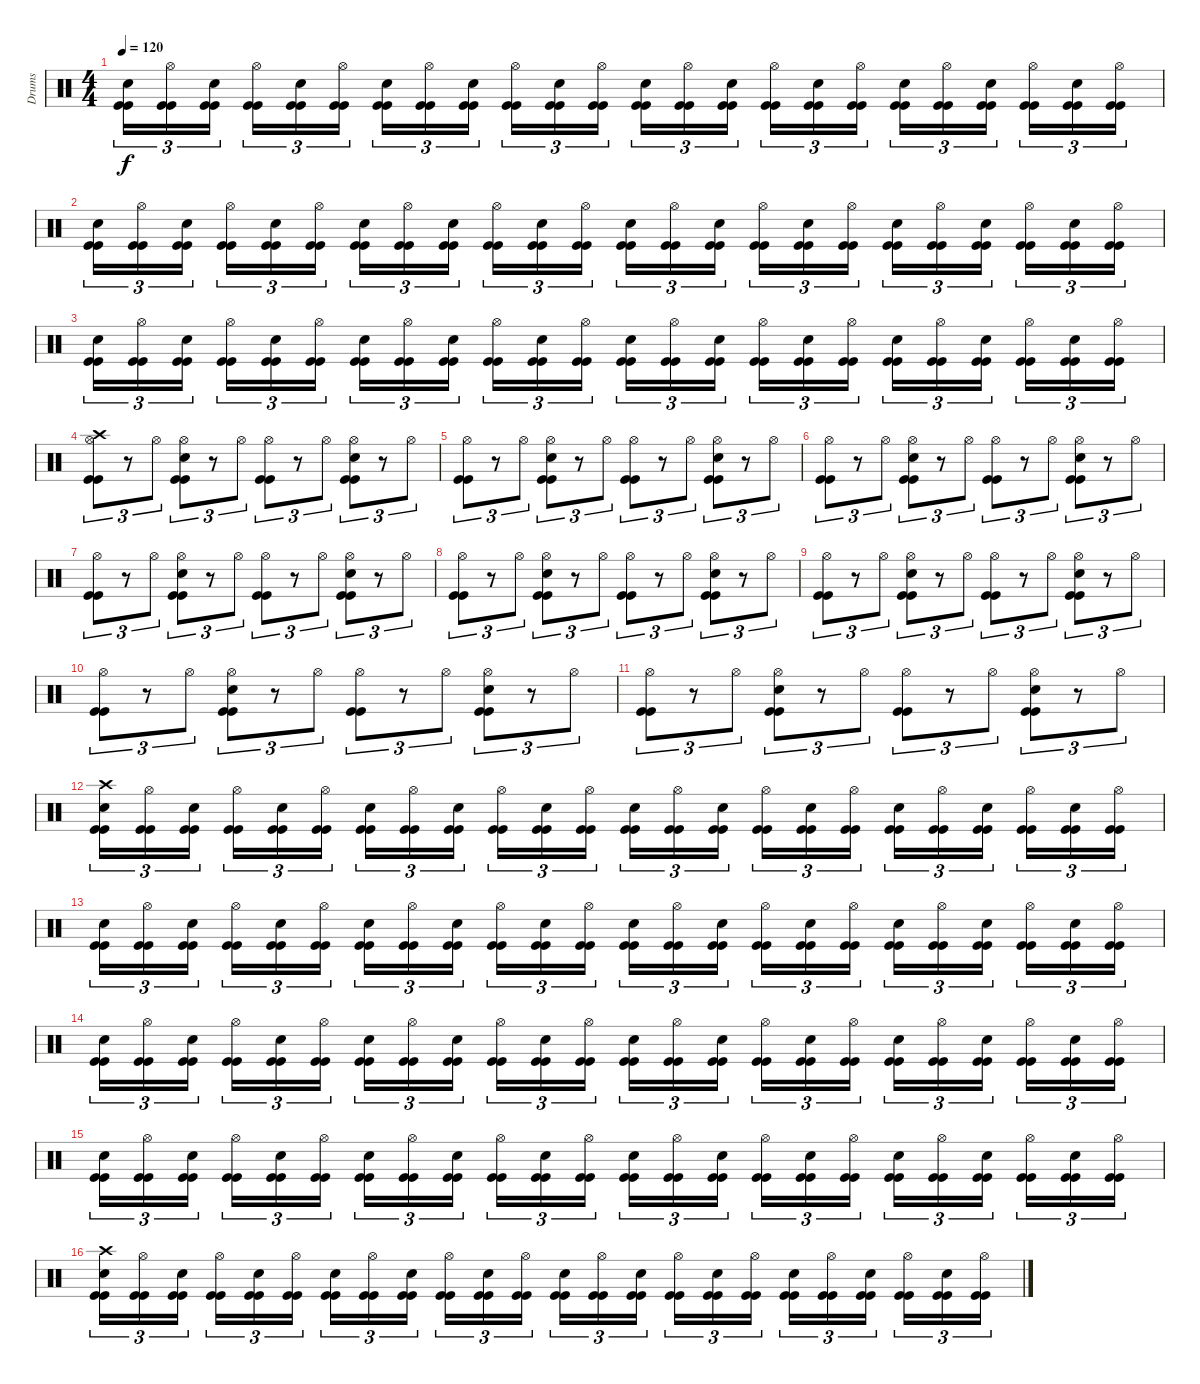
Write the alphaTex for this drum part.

\track ("Drums" "Drums") {instrument percussion}
\staff {score}
\articulation defaults
\ts (4 4)
\tempo 120
\clef neutral
\ks c
("Snare (hit) 2" "Kick (hit)" "Kick (hit)").16{tu (3 2) dy f} ("Hi-Hat (open)" "Kick (hit)" "Kick (hit)").16{tu (3 2)} ("Snare (hit) 2" "Kick (hit)" "Kick (hit)").16{tu (3 2)} ("Hi-Hat (open)" "Kick (hit)" "Kick (hit)").16{tu (3 2)} ("Snare (hit) 2" "Kick (hit)" "Kick (hit)").16{tu (3 2)} ("Hi-Hat (open)" "Kick (hit)" "Kick (hit)").16{tu (3 2)} ("Snare (hit) 2" "Kick (hit)" "Kick (hit)").16{tu (3 2)} ("Hi-Hat (open)" "Kick (hit)" "Kick (hit)").16{tu (3 2)} ("Snare (hit) 2" "Kick (hit)" "Kick (hit)").16{tu (3 2)} ("Hi-Hat (open)" "Kick (hit)" "Kick (hit)").16{tu (3 2)} ("Snare (hit) 2" "Kick (hit)" "Kick (hit)").16{tu (3 2)} ("Hi-Hat (open)" "Kick (hit)" "Kick (hit)").16{tu (3 2)} ("Snare (hit) 2" "Kick (hit)" "Kick (hit)").16{tu (3 2)} ("Hi-Hat (open)" "Kick (hit)" "Kick (hit)").16{tu (3 2)} ("Snare (hit) 2" "Kick (hit)" "Kick (hit)").16{tu (3 2)} ("Hi-Hat (open)" "Kick (hit)" "Kick (hit)").16{tu (3 2)} ("Snare (hit) 2" "Kick (hit)" "Kick (hit)").16{tu (3 2)} ("Hi-Hat (open)" "Kick (hit)" "Kick (hit)").16{tu (3 2)} ("Snare (hit) 2" "Kick (hit)" "Kick (hit)").16{tu (3 2)} ("Hi-Hat (open)" "Kick (hit)" "Kick (hit)").16{tu (3 2)} ("Snare (hit) 2" "Kick (hit)" "Kick (hit)").16{tu (3 2)} ("Hi-Hat (open)" "Kick (hit)" "Kick (hit)").16{tu (3 2)} ("Snare (hit) 2" "Kick (hit)" "Kick (hit)").16{tu (3 2)} ("Hi-Hat (open)" "Kick (hit)" "Kick (hit)").16{tu (3 2)} |
("Snare (hit) 2" "Kick (hit)" "Kick (hit)").16{tu (3 2)} ("Hi-Hat (open)" "Kick (hit)" "Kick (hit)").16{tu (3 2)} ("Snare (hit) 2" "Kick (hit)" "Kick (hit)").16{tu (3 2)} ("Hi-Hat (open)" "Kick (hit)" "Kick (hit)").16{tu (3 2)} ("Snare (hit) 2" "Kick (hit)" "Kick (hit)").16{tu (3 2)} ("Hi-Hat (open)" "Kick (hit)" "Kick (hit)").16{tu (3 2)} ("Snare (hit) 2" "Kick (hit)" "Kick (hit)").16{tu (3 2)} ("Hi-Hat (open)" "Kick (hit)" "Kick (hit)").16{tu (3 2)} ("Snare (hit) 2" "Kick (hit)" "Kick (hit)").16{tu (3 2)} ("Hi-Hat (open)" "Kick (hit)" "Kick (hit)").16{tu (3 2)} ("Snare (hit) 2" "Kick (hit)" "Kick (hit)").16{tu (3 2)} ("Hi-Hat (open)" "Kick (hit)" "Kick (hit)").16{tu (3 2)} ("Snare (hit) 2" "Kick (hit)" "Kick (hit)").16{tu (3 2)} ("Hi-Hat (open)" "Kick (hit)" "Kick (hit)").16{tu (3 2)} ("Snare (hit) 2" "Kick (hit)" "Kick (hit)").16{tu (3 2)} ("Hi-Hat (open)" "Kick (hit)" "Kick (hit)").16{tu (3 2)} ("Snare (hit) 2" "Kick (hit)" "Kick (hit)").16{tu (3 2)} ("Hi-Hat (open)" "Kick (hit)" "Kick (hit)").16{tu (3 2)} ("Snare (hit) 2" "Kick (hit)" "Kick (hit)").16{tu (3 2)} ("Hi-Hat (open)" "Kick (hit)" "Kick (hit)").16{tu (3 2)} ("Snare (hit) 2" "Kick (hit)" "Kick (hit)").16{tu (3 2)} ("Hi-Hat (open)" "Kick (hit)" "Kick (hit)").16{tu (3 2)} ("Snare (hit) 2" "Kick (hit)" "Kick (hit)").16{tu (3 2)} ("Hi-Hat (open)" "Kick (hit)" "Kick (hit)").16{tu (3 2)} |
("Snare (hit) 2" "Kick (hit)" "Kick (hit)").16{tu (3 2)} ("Hi-Hat (open)" "Kick (hit)" "Kick (hit)").16{tu (3 2)} ("Snare (hit) 2" "Kick (hit)" "Kick (hit)").16{tu (3 2)} ("Hi-Hat (open)" "Kick (hit)" "Kick (hit)").16{tu (3 2)} ("Snare (hit) 2" "Kick (hit)" "Kick (hit)").16{tu (3 2)} ("Hi-Hat (open)" "Kick (hit)" "Kick (hit)").16{tu (3 2)} ("Snare (hit) 2" "Kick (hit)" "Kick (hit)").16{tu (3 2)} ("Hi-Hat (open)" "Kick (hit)" "Kick (hit)").16{tu (3 2)} ("Snare (hit) 2" "Kick (hit)" "Kick (hit)").16{tu (3 2)} ("Hi-Hat (open)" "Kick (hit)" "Kick (hit)").16{tu (3 2)} ("Snare (hit) 2" "Kick (hit)" "Kick (hit)").16{tu (3 2)} ("Hi-Hat (open)" "Kick (hit)" "Kick (hit)").16{tu (3 2)} ("Snare (hit) 2" "Kick (hit)" "Kick (hit)").16{tu (3 2)} ("Hi-Hat (open)" "Kick (hit)" "Kick (hit)").16{tu (3 2)} ("Snare (hit) 2" "Kick (hit)" "Kick (hit)").16{tu (3 2)} ("Hi-Hat (open)" "Kick (hit)" "Kick (hit)").16{tu (3 2)} ("Snare (hit) 2" "Kick (hit)" "Kick (hit)").16{tu (3 2)} ("Hi-Hat (open)" "Kick (hit)" "Kick (hit)").16{tu (3 2)} ("Snare (hit) 2" "Kick (hit)" "Kick (hit)").16{tu (3 2)} ("Hi-Hat (open)" "Kick (hit)" "Kick (hit)").16{tu (3 2)} ("Snare (hit) 2" "Kick (hit)" "Kick (hit)").16{tu (3 2)} ("Hi-Hat (open)" "Kick (hit)" "Kick (hit)").16{tu (3 2)} ("Snare (hit) 2" "Kick (hit)" "Kick (hit)").16{tu (3 2)} ("Hi-Hat (open)" "Kick (hit)" "Kick (hit)").16{tu (3 2)} |
("Crash high (hit)" "Hi-Hat (open)" "Kick (hit)" "Kick (hit)").8{tu (3 2)} r.8{tu (3 2)} "Hi-Hat (open)".8{tu (3 2)} ("Snare (hit) 2" "Hi-Hat (open)" "Kick (hit)" "Kick (hit)").8{tu (3 2)} r.8{tu (3 2)} "Hi-Hat (open)".8{tu (3 2)} ("Hi-Hat (open)" "Kick (hit)" "Kick (hit)").8{tu (3 2)} r.8{tu (3 2)} "Hi-Hat (open)".8{tu (3 2)} ("Snare (hit) 2" "Hi-Hat (open)" "Kick (hit)" "Kick (hit)").8{tu (3 2)} r.8{tu (3 2)} "Hi-Hat (open)".8{tu (3 2)} |
("Hi-Hat (open)" "Kick (hit)" "Kick (hit)").8{tu (3 2)} r.8{tu (3 2)} "Hi-Hat (open)".8{tu (3 2)} ("Snare (hit) 2" "Hi-Hat (open)" "Kick (hit)" "Kick (hit)").8{tu (3 2)} r.8{tu (3 2)} "Hi-Hat (open)".8{tu (3 2)} ("Hi-Hat (open)" "Kick (hit)" "Kick (hit)").8{tu (3 2)} r.8{tu (3 2)} "Hi-Hat (open)".8{tu (3 2)} ("Snare (hit) 2" "Hi-Hat (open)" "Kick (hit)" "Kick (hit)").8{tu (3 2)} r.8{tu (3 2)} "Hi-Hat (open)".8{tu (3 2)} |
("Hi-Hat (open)" "Kick (hit)" "Kick (hit)").8{tu (3 2)} r.8{tu (3 2)} "Hi-Hat (open)".8{tu (3 2)} ("Snare (hit) 2" "Hi-Hat (open)" "Kick (hit)" "Kick (hit)").8{tu (3 2)} r.8{tu (3 2)} "Hi-Hat (open)".8{tu (3 2)} ("Hi-Hat (open)" "Kick (hit)" "Kick (hit)").8{tu (3 2)} r.8{tu (3 2)} "Hi-Hat (open)".8{tu (3 2)} ("Snare (hit) 2" "Hi-Hat (open)" "Kick (hit)" "Kick (hit)").8{tu (3 2)} r.8{tu (3 2)} "Hi-Hat (open)".8{tu (3 2)} |
("Hi-Hat (open)" "Kick (hit)" "Kick (hit)").8{tu (3 2)} r.8{tu (3 2)} "Hi-Hat (open)".8{tu (3 2)} ("Snare (hit) 2" "Hi-Hat (open)" "Kick (hit)" "Kick (hit)").8{tu (3 2)} r.8{tu (3 2)} "Hi-Hat (open)".8{tu (3 2)} ("Hi-Hat (open)" "Kick (hit)" "Kick (hit)").8{tu (3 2)} r.8{tu (3 2)} "Hi-Hat (open)".8{tu (3 2)} ("Snare (hit) 2" "Hi-Hat (open)" "Kick (hit)" "Kick (hit)").8{tu (3 2)} r.8{tu (3 2)} "Hi-Hat (open)".8{tu (3 2)} |
("Hi-Hat (open)" "Kick (hit)" "Kick (hit)").8{tu (3 2)} r.8{tu (3 2)} "Hi-Hat (open)".8{tu (3 2)} ("Snare (hit) 2" "Hi-Hat (open)" "Kick (hit)" "Kick (hit)").8{tu (3 2)} r.8{tu (3 2)} "Hi-Hat (open)".8{tu (3 2)} ("Hi-Hat (open)" "Kick (hit)" "Kick (hit)").8{tu (3 2)} r.8{tu (3 2)} "Hi-Hat (open)".8{tu (3 2)} ("Snare (hit) 2" "Hi-Hat (open)" "Kick (hit)" "Kick (hit)").8{tu (3 2)} r.8{tu (3 2)} "Hi-Hat (open)".8{tu (3 2)} |
("Hi-Hat (open)" "Kick (hit)" "Kick (hit)").8{tu (3 2)} r.8{tu (3 2)} "Hi-Hat (open)".8{tu (3 2)} ("Snare (hit) 2" "Hi-Hat (open)" "Kick (hit)" "Kick (hit)").8{tu (3 2)} r.8{tu (3 2)} "Hi-Hat (open)".8{tu (3 2)} ("Hi-Hat (open)" "Kick (hit)" "Kick (hit)").8{tu (3 2)} r.8{tu (3 2)} "Hi-Hat (open)".8{tu (3 2)} ("Snare (hit) 2" "Hi-Hat (open)" "Kick (hit)" "Kick (hit)").8{tu (3 2)} r.8{tu (3 2)} "Hi-Hat (open)".8{tu (3 2)} |
("Hi-Hat (open)" "Kick (hit)" "Kick (hit)").8{tu (3 2)} r.8{tu (3 2)} "Hi-Hat (open)".8{tu (3 2)} ("Snare (hit) 2" "Hi-Hat (open)" "Kick (hit)" "Kick (hit)").8{tu (3 2)} r.8{tu (3 2)} "Hi-Hat (open)".8{tu (3 2)} ("Hi-Hat (open)" "Kick (hit)" "Kick (hit)").8{tu (3 2)} r.8{tu (3 2)} "Hi-Hat (open)".8{tu (3 2)} ("Snare (hit) 2" "Hi-Hat (open)" "Kick (hit)" "Kick (hit)").8{tu (3 2)} r.8{tu (3 2)} "Hi-Hat (open)".8{tu (3 2)} |
("Hi-Hat (open)" "Kick (hit)" "Kick (hit)").8{tu (3 2)} r.8{tu (3 2)} "Hi-Hat (open)".8{tu (3 2)} ("Snare (hit) 2" "Hi-Hat (open)" "Kick (hit)" "Kick (hit)").8{tu (3 2)} r.8{tu (3 2)} "Hi-Hat (open)".8{tu (3 2)} ("Hi-Hat (open)" "Kick (hit)" "Kick (hit)").8{tu (3 2)} r.8{tu (3 2)} "Hi-Hat (open)".8{tu (3 2)} ("Snare (hit) 2" "Hi-Hat (open)" "Kick (hit)" "Kick (hit)").8{tu (3 2)} r.8{tu (3 2)} "Hi-Hat (open)".8{tu (3 2)} |
("Crash high (hit)" "Snare (hit) 2" "Kick (hit)" "Kick (hit)").16{tu (3 2)} ("Hi-Hat (open)" "Kick (hit)" "Kick (hit)").16{tu (3 2)} ("Snare (hit) 2" "Kick (hit)" "Kick (hit)").16{tu (3 2)} ("Hi-Hat (open)" "Kick (hit)" "Kick (hit)").16{tu (3 2)} ("Snare (hit) 2" "Kick (hit)" "Kick (hit)").16{tu (3 2)} ("Hi-Hat (open)" "Kick (hit)" "Kick (hit)").16{tu (3 2)} ("Snare (hit) 2" "Kick (hit)" "Kick (hit)").16{tu (3 2)} ("Hi-Hat (open)" "Kick (hit)" "Kick (hit)").16{tu (3 2)} ("Snare (hit) 2" "Kick (hit)" "Kick (hit)").16{tu (3 2)} ("Hi-Hat (open)" "Kick (hit)" "Kick (hit)").16{tu (3 2)} ("Snare (hit) 2" "Kick (hit)" "Kick (hit)").16{tu (3 2)} ("Hi-Hat (open)" "Kick (hit)" "Kick (hit)").16{tu (3 2)} ("Snare (hit) 2" "Kick (hit)" "Kick (hit)").16{tu (3 2)} ("Hi-Hat (open)" "Kick (hit)" "Kick (hit)").16{tu (3 2)} ("Snare (hit) 2" "Kick (hit)" "Kick (hit)").16{tu (3 2)} ("Hi-Hat (open)" "Kick (hit)" "Kick (hit)").16{tu (3 2)} ("Snare (hit) 2" "Kick (hit)" "Kick (hit)").16{tu (3 2)} ("Hi-Hat (open)" "Kick (hit)" "Kick (hit)").16{tu (3 2)} ("Snare (hit) 2" "Kick (hit)" "Kick (hit)").16{tu (3 2)} ("Hi-Hat (open)" "Kick (hit)" "Kick (hit)").16{tu (3 2)} ("Snare (hit) 2" "Kick (hit)" "Kick (hit)").16{tu (3 2)} ("Hi-Hat (open)" "Kick (hit)" "Kick (hit)").16{tu (3 2)} ("Snare (hit) 2" "Kick (hit)" "Kick (hit)").16{tu (3 2)} ("Hi-Hat (open)" "Kick (hit)" "Kick (hit)").16{tu (3 2)} |
("Snare (hit) 2" "Kick (hit)" "Kick (hit)").16{tu (3 2)} ("Hi-Hat (open)" "Kick (hit)" "Kick (hit)").16{tu (3 2)} ("Snare (hit) 2" "Kick (hit)" "Kick (hit)").16{tu (3 2)} ("Hi-Hat (open)" "Kick (hit)" "Kick (hit)").16{tu (3 2)} ("Snare (hit) 2" "Kick (hit)" "Kick (hit)").16{tu (3 2)} ("Hi-Hat (open)" "Kick (hit)" "Kick (hit)").16{tu (3 2)} ("Snare (hit) 2" "Kick (hit)" "Kick (hit)").16{tu (3 2)} ("Hi-Hat (open)" "Kick (hit)" "Kick (hit)").16{tu (3 2)} ("Snare (hit) 2" "Kick (hit)" "Kick (hit)").16{tu (3 2)} ("Hi-Hat (open)" "Kick (hit)" "Kick (hit)").16{tu (3 2)} ("Snare (hit) 2" "Kick (hit)" "Kick (hit)").16{tu (3 2)} ("Hi-Hat (open)" "Kick (hit)" "Kick (hit)").16{tu (3 2)} ("Snare (hit) 2" "Kick (hit)" "Kick (hit)").16{tu (3 2)} ("Hi-Hat (open)" "Kick (hit)" "Kick (hit)").16{tu (3 2)} ("Snare (hit) 2" "Kick (hit)" "Kick (hit)").16{tu (3 2)} ("Hi-Hat (open)" "Kick (hit)" "Kick (hit)").16{tu (3 2)} ("Snare (hit) 2" "Kick (hit)" "Kick (hit)").16{tu (3 2)} ("Hi-Hat (open)" "Kick (hit)" "Kick (hit)").16{tu (3 2)} ("Snare (hit) 2" "Kick (hit)" "Kick (hit)").16{tu (3 2)} ("Hi-Hat (open)" "Kick (hit)" "Kick (hit)").16{tu (3 2)} ("Snare (hit) 2" "Kick (hit)" "Kick (hit)").16{tu (3 2)} ("Hi-Hat (open)" "Kick (hit)" "Kick (hit)").16{tu (3 2)} ("Snare (hit) 2" "Kick (hit)" "Kick (hit)").16{tu (3 2)} ("Hi-Hat (open)" "Kick (hit)" "Kick (hit)").16{tu (3 2)} |
("Snare (hit) 2" "Kick (hit)" "Kick (hit)").16{tu (3 2)} ("Hi-Hat (open)" "Kick (hit)" "Kick (hit)").16{tu (3 2)} ("Snare (hit) 2" "Kick (hit)" "Kick (hit)").16{tu (3 2)} ("Hi-Hat (open)" "Kick (hit)" "Kick (hit)").16{tu (3 2)} ("Snare (hit) 2" "Kick (hit)" "Kick (hit)").16{tu (3 2)} ("Hi-Hat (open)" "Kick (hit)" "Kick (hit)").16{tu (3 2)} ("Snare (hit) 2" "Kick (hit)" "Kick (hit)").16{tu (3 2)} ("Hi-Hat (open)" "Kick (hit)" "Kick (hit)").16{tu (3 2)} ("Snare (hit) 2" "Kick (hit)" "Kick (hit)").16{tu (3 2)} ("Hi-Hat (open)" "Kick (hit)" "Kick (hit)").16{tu (3 2)} ("Snare (hit) 2" "Kick (hit)" "Kick (hit)").16{tu (3 2)} ("Hi-Hat (open)" "Kick (hit)" "Kick (hit)").16{tu (3 2)} ("Snare (hit) 2" "Kick (hit)" "Kick (hit)").16{tu (3 2)} ("Hi-Hat (open)" "Kick (hit)" "Kick (hit)").16{tu (3 2)} ("Snare (hit) 2" "Kick (hit)" "Kick (hit)").16{tu (3 2)} ("Hi-Hat (open)" "Kick (hit)" "Kick (hit)").16{tu (3 2)} ("Snare (hit) 2" "Kick (hit)" "Kick (hit)").16{tu (3 2)} ("Hi-Hat (open)" "Kick (hit)" "Kick (hit)").16{tu (3 2)} ("Snare (hit) 2" "Kick (hit)" "Kick (hit)").16{tu (3 2)} ("Hi-Hat (open)" "Kick (hit)" "Kick (hit)").16{tu (3 2)} ("Snare (hit) 2" "Kick (hit)" "Kick (hit)").16{tu (3 2)} ("Hi-Hat (open)" "Kick (hit)" "Kick (hit)").16{tu (3 2)} ("Snare (hit) 2" "Kick (hit)" "Kick (hit)").16{tu (3 2)} ("Hi-Hat (open)" "Kick (hit)" "Kick (hit)").16{tu (3 2)} |
("Snare (hit) 2" "Kick (hit)" "Kick (hit)").16{tu (3 2)} ("Hi-Hat (open)" "Kick (hit)" "Kick (hit)").16{tu (3 2)} ("Snare (hit) 2" "Kick (hit)" "Kick (hit)").16{tu (3 2)} ("Hi-Hat (open)" "Kick (hit)" "Kick (hit)").16{tu (3 2)} ("Snare (hit) 2" "Kick (hit)" "Kick (hit)").16{tu (3 2)} ("Hi-Hat (open)" "Kick (hit)" "Kick (hit)").16{tu (3 2)} ("Snare (hit) 2" "Kick (hit)" "Kick (hit)").16{tu (3 2)} ("Hi-Hat (open)" "Kick (hit)" "Kick (hit)").16{tu (3 2)} ("Snare (hit) 2" "Kick (hit)" "Kick (hit)").16{tu (3 2)} ("Hi-Hat (open)" "Kick (hit)" "Kick (hit)").16{tu (3 2)} ("Snare (hit) 2" "Kick (hit)" "Kick (hit)").16{tu (3 2)} ("Hi-Hat (open)" "Kick (hit)" "Kick (hit)").16{tu (3 2)} ("Snare (hit) 2" "Kick (hit)" "Kick (hit)").16{tu (3 2)} ("Hi-Hat (open)" "Kick (hit)" "Kick (hit)").16{tu (3 2)} ("Snare (hit) 2" "Kick (hit)" "Kick (hit)").16{tu (3 2)} ("Hi-Hat (open)" "Kick (hit)" "Kick (hit)").16{tu (3 2)} ("Snare (hit) 2" "Kick (hit)" "Kick (hit)").16{tu (3 2)} ("Hi-Hat (open)" "Kick (hit)" "Kick (hit)").16{tu (3 2)} ("Snare (hit) 2" "Kick (hit)" "Kick (hit)").16{tu (3 2)} ("Hi-Hat (open)" "Kick (hit)" "Kick (hit)").16{tu (3 2)} ("Snare (hit) 2" "Kick (hit)" "Kick (hit)").16{tu (3 2)} ("Hi-Hat (open)" "Kick (hit)" "Kick (hit)").16{tu (3 2)} ("Snare (hit) 2" "Kick (hit)" "Kick (hit)").16{tu (3 2)} ("Hi-Hat (open)" "Kick (hit)" "Kick (hit)").16{tu (3 2)} |
("Crash high (hit)" "Snare (hit) 2" "Kick (hit)" "Kick (hit)").16{tu (3 2)} ("Hi-Hat (open)" "Kick (hit)" "Kick (hit)").16{tu (3 2)} ("Snare (hit) 2" "Kick (hit)" "Kick (hit)").16{tu (3 2)} ("Hi-Hat (open)" "Kick (hit)" "Kick (hit)").16{tu (3 2)} ("Snare (hit) 2" "Kick (hit)" "Kick (hit)").16{tu (3 2)} ("Hi-Hat (open)" "Kick (hit)" "Kick (hit)").16{tu (3 2)} ("Snare (hit) 2" "Kick (hit)" "Kick (hit)").16{tu (3 2)} ("Hi-Hat (open)" "Kick (hit)" "Kick (hit)").16{tu (3 2)} ("Snare (hit) 2" "Kick (hit)" "Kick (hit)").16{tu (3 2)} ("Hi-Hat (open)" "Kick (hit)" "Kick (hit)").16{tu (3 2)} ("Snare (hit) 2" "Kick (hit)" "Kick (hit)").16{tu (3 2)} ("Hi-Hat (open)" "Kick (hit)" "Kick (hit)").16{tu (3 2)} ("Snare (hit) 2" "Kick (hit)" "Kick (hit)").16{tu (3 2)} ("Hi-Hat (open)" "Kick (hit)" "Kick (hit)").16{tu (3 2)} ("Snare (hit) 2" "Kick (hit)" "Kick (hit)").16{tu (3 2)} ("Hi-Hat (open)" "Kick (hit)" "Kick (hit)").16{tu (3 2)} ("Snare (hit) 2" "Kick (hit)" "Kick (hit)").16{tu (3 2)} ("Hi-Hat (open)" "Kick (hit)" "Kick (hit)").16{tu (3 2)} ("Snare (hit) 2" "Kick (hit)" "Kick (hit)").16{tu (3 2)} ("Hi-Hat (open)" "Kick (hit)" "Kick (hit)").16{tu (3 2)} ("Snare (hit) 2" "Kick (hit)" "Kick (hit)").16{tu (3 2)} ("Hi-Hat (open)" "Kick (hit)" "Kick (hit)").16{tu (3 2)} ("Snare (hit) 2" "Kick (hit)" "Kick (hit)").16{tu (3 2)} ("Hi-Hat (open)" "Kick (hit)" "Kick (hit)").16{tu (3 2)}
